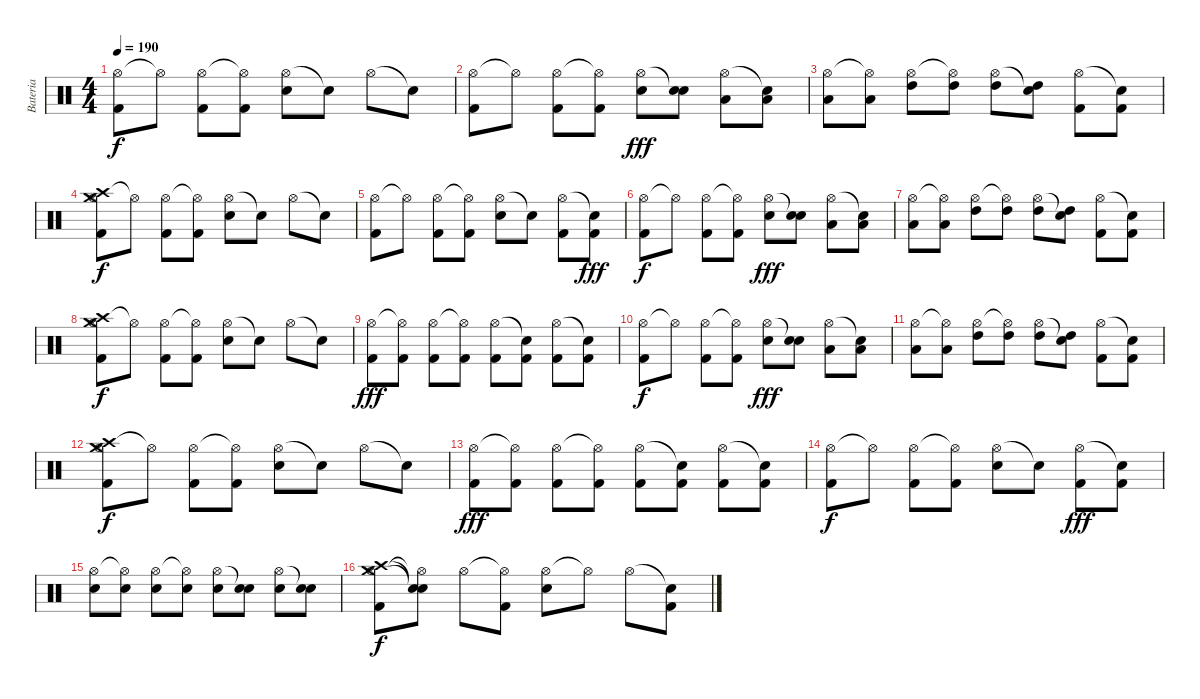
\track ("Bateria" "Bateria") {instrument percussion}
\staff {score}
\articulation defaults
\ts (4 4)
\tempo 190
\clef neutral
\ks c
("Hi-Hat (open)" "Kick (hit) 2").8{dy f} "Hi-Hat (open)"{t}.8 ("Hi-Hat (open)" "Kick (hit) 2").8 ("Hi-Hat (open)"{t} "Kick (hit) 2").8 ("Hi-Hat (open)" "Electric Snare (hit)").8 "Snare (hit)"{t}.8 "Hi-Hat (open)".8 "Snare (hit)"{t}.8 |
("Hi-Hat (open)" "Kick (hit) 2").8 "Hi-Hat (open)"{t}.8 ("Hi-Hat (open)" "Kick (hit) 2").8 ("Hi-Hat (open)"{t} "Kick (hit) 2").8 ("Hi-Hat (open)" "Electric Snare (hit)").8{dy fff} ("Snare (hit)"{t} "Electric Snare (hit)").8 ("Hi-Hat (open)" "Low Tom (hit)").8 ("Snare (hit)"{t} "Low Tom (hit)").8 |
("Hi-Hat (open)" "Low Tom (hit)").8 ("Hi-Hat (open)"{t} "Low Tom (hit)").8 ("Hi-Hat (open)" "High Tom (hit)").8 ("Hi-Hat (open)"{t} "High Tom (hit)").8 ("Hi-Hat (open)" "High Tom (hit)").8 ("Snare (hit)"{t} "High Tom (hit)").8 ("Hi-Hat (open)" "Kick (hit) 2").8 ("Snare (hit)"{t} "Kick (hit) 2").8 |
("Crash high (hit)" "Crash medium (hit)" "Hi-Hat (open)" "Kick (hit) 2").8{dy f} "Hi-Hat (open)"{t}.8 ("Hi-Hat (open)" "Kick (hit) 2").8 ("Hi-Hat (open)"{t} "Kick (hit) 2").8 ("Hi-Hat (open)" "Electric Snare (hit)").8 "Snare (hit)"{t}.8 "Hi-Hat (open)".8 "Snare (hit)"{t}.8 |
("Hi-Hat (open)" "Kick (hit) 2").8 "Hi-Hat (open)"{t}.8 ("Hi-Hat (open)" "Kick (hit) 2").8 ("Hi-Hat (open)"{t} "Kick (hit) 2").8 ("Hi-Hat (open)" "Electric Snare (hit)").8 "Snare (hit)"{t}.8 ("Hi-Hat (open)" "Kick (hit) 2").8 ("Snare (hit)"{t} "Kick (hit) 2").8{dy fff} |
("Hi-Hat (open)" "Kick (hit) 2").8{dy f} "Hi-Hat (open)"{t}.8 ("Hi-Hat (open)" "Kick (hit) 2").8 ("Hi-Hat (open)"{t} "Kick (hit) 2").8 ("Hi-Hat (open)" "Electric Snare (hit)").8{dy fff} ("Snare (hit)"{t} "Electric Snare (hit)").8 ("Hi-Hat (open)" "Low Tom (hit)").8 ("Snare (hit)"{t} "Low Tom (hit)").8 |
("Hi-Hat (open)" "Low Tom (hit)").8 ("Hi-Hat (open)"{t} "Low Tom (hit)").8 ("Hi-Hat (open)" "High Tom (hit)").8 ("Hi-Hat (open)"{t} "High Tom (hit)").8 ("Hi-Hat (open)" "High Tom (hit)").8 ("Snare (hit)"{t} "High Tom (hit)").8 ("Hi-Hat (open)" "Kick (hit) 2").8 ("Snare (hit)"{t} "Kick (hit) 2").8 |
("Crash high (hit)" "Crash medium (hit)" "Hi-Hat (open)" "Kick (hit) 2").8{dy f} "Hi-Hat (open)"{t}.8 ("Hi-Hat (open)" "Kick (hit) 2").8 ("Hi-Hat (open)"{t} "Kick (hit) 2").8 ("Hi-Hat (open)" "Electric Snare (hit)").8 "Snare (hit)"{t}.8 "Hi-Hat (open)".8 "Snare (hit)"{t}.8 |
("Hi-Hat (open)" "Kick (hit) 2").8{dy fff} ("Hi-Hat (open)"{t} "Kick (hit) 2").8 ("Hi-Hat (open)" "Kick (hit) 2").8 ("Hi-Hat (open)"{t} "Kick (hit) 2").8 ("Hi-Hat (open)" "Kick (hit) 2").8 ("Snare (hit)"{t} "Kick (hit) 2").8 ("Hi-Hat (open)" "Kick (hit) 2").8 ("Snare (hit)"{t} "Kick (hit) 2").8 |
("Hi-Hat (open)" "Kick (hit) 2").8{dy f} "Hi-Hat (open)"{t}.8 ("Hi-Hat (open)" "Kick (hit) 2").8 ("Hi-Hat (open)"{t} "Kick (hit) 2").8 ("Hi-Hat (open)" "Electric Snare (hit)").8{dy fff} ("Snare (hit)"{t} "Electric Snare (hit)").8 ("Hi-Hat (open)" "Low Tom (hit)").8 ("Snare (hit)"{t} "Low Tom (hit)").8 |
("Hi-Hat (open)" "Low Tom (hit)").8 ("Hi-Hat (open)"{t} "Low Tom (hit)").8 ("Hi-Hat (open)" "High Tom (hit)").8 ("Hi-Hat (open)"{t} "High Tom (hit)").8 ("Hi-Hat (open)" "High Tom (hit)").8 ("Snare (hit)"{t} "High Tom (hit)").8 ("Hi-Hat (open)" "Kick (hit) 2").8 ("Snare (hit)"{t} "Kick (hit) 2").8 |
("Crash high (hit)" "Crash medium (hit)" "Hi-Hat (open)" "Kick (hit) 2").8{dy f} "Hi-Hat (open)"{t}.8 ("Hi-Hat (open)" "Kick (hit) 2").8 ("Hi-Hat (open)"{t} "Kick (hit) 2").8 ("Hi-Hat (open)" "Electric Snare (hit)").8 "Snare (hit)"{t}.8 "Hi-Hat (open)".8 "Snare (hit)"{t}.8 |
("Hi-Hat (open)" "Kick (hit) 2").8{dy fff} ("Hi-Hat (open)"{t} "Kick (hit) 2").8 ("Hi-Hat (open)" "Kick (hit) 2").8 ("Hi-Hat (open)"{t} "Kick (hit) 2").8 ("Hi-Hat (open)" "Kick (hit) 2").8 ("Snare (hit)"{t} "Kick (hit) 2").8 ("Hi-Hat (open)" "Kick (hit) 2").8 ("Snare (hit)"{t} "Kick (hit) 2").8 |
("Hi-Hat (open)" "Kick (hit) 2").8{dy f} "Hi-Hat (open)"{t}.8 ("Hi-Hat (open)" "Kick (hit) 2").8 ("Hi-Hat (open)"{t} "Kick (hit) 2").8 ("Hi-Hat (open)" "Electric Snare (hit)").8 "Snare (hit)"{t}.8 ("Hi-Hat (open)" "Kick (hit) 2").8{dy fff} ("Snare (hit)"{t} "Kick (hit) 2").8 |
("Hi-Hat (open)" "Electric Snare (hit)").8 ("Hi-Hat (open)"{t} "Electric Snare (hit)").8 ("Hi-Hat (open)" "Electric Snare (hit)").8 ("Hi-Hat (open)"{t} "Electric Snare (hit)").8 ("Hi-Hat (open)" "Electric Snare (hit)").8 ("Snare (hit)"{t} "Electric Snare (hit)").8 ("Hi-Hat (open)" "Electric Snare (hit)").8 ("Snare (hit)"{t} "Electric Snare (hit)").8 |
("Hi-Hat (open)" "Crash high (hit)" "Crash medium (hit)" "Kick (hit) 2").8{dy f} ("Snare (hit)"{t} "Snare (hit)"{t} "Hi-Hat (open)"{t}).8 "Hi-Hat (open)".8 ("Hi-Hat (open)"{t} "Kick (hit) 2").8 ("Hi-Hat (open)" "Electric Snare (hit)").8 "Hi-Hat (open)"{t}.8 "Hi-Hat (open)".8 ("Snare (hit)"{t} "Kick (hit) 2").8
